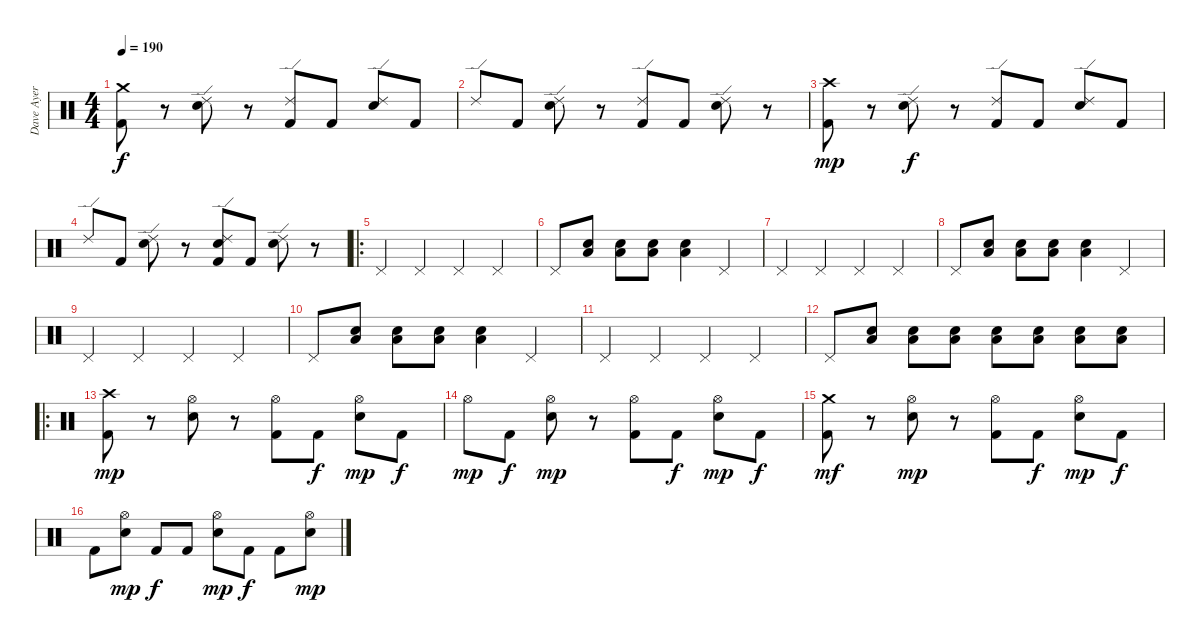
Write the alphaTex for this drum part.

\track ("Dave Ayer" "Dave Ayer") {instrument percussion}
\staff {score}
\articulation defaults
\ts (4 4)
\tempo 190
\clef neutral
\ks c
("Crash medium (hit)" "Kick (hit) 2").8{dy f} r.8 ("Ride (edge) 2" "Snare (hit) 2").8 r.8 ("Ride (edge) 2" "Kick (hit) 2").8 "Kick (hit) 2".8 ("Ride (edge) 2" "Snare (hit) 2").8 "Kick (hit) 2".8 |
"Ride (edge) 2".8 "Kick (hit) 2".8 ("Ride (edge) 2" "Snare (hit) 2").8 r.8 ("Ride (edge) 2" "Kick (hit) 2").8 "Kick (hit) 2".8 ("Ride (edge) 2" "Snare (hit) 2").8 r.8 |
("Crash high (hit)" "Kick (hit) 2").8{dy mp} r.8 ("Ride (edge) 2" "Snare (hit) 2").8{dy f} r.8 ("Ride (edge) 2" "Kick (hit) 2").8 "Kick (hit) 2".8 ("Ride (edge) 2" "Snare (hit) 2").8 "Kick (hit) 2".8 |
"Ride (edge) 2".8 "Kick (hit) 2".8 ("Ride (edge) 2" "Snare (hit) 2").8 r.8 ("Ride (edge) 2" "Snare (hit) 2" "Kick (hit) 2").8 "Kick (hit) 2".8 ("Ride (edge) 2" "Snare (hit) 2").8 r.8 |
\ro "Pedal Hi-Hat (hit)".4 "Pedal Hi-Hat (hit)".4 "Pedal Hi-Hat (hit)".4 "Pedal Hi-Hat (hit)".4
|
"Pedal Hi-Hat (hit)".8 ("Snare (hit) 2" "Low Floor Tom (hit)").8 ("Snare (hit) 2" "Low Floor Tom (hit)").8 ("Snare (hit) 2" "Low Floor Tom (hit)").8 ("Snare (hit) 2" "Low Floor Tom (hit)").4 "Pedal Hi-Hat (hit)".4 |
"Pedal Hi-Hat (hit)".4 "Pedal Hi-Hat (hit)".4 "Pedal Hi-Hat (hit)".4 "Pedal Hi-Hat (hit)".4 |
"Pedal Hi-Hat (hit)".8 ("Snare (hit) 2" "Low Floor Tom (hit)").8 ("Snare (hit) 2" "Low Floor Tom (hit)").8 ("Snare (hit) 2" "Low Floor Tom (hit)").8 ("Snare (hit) 2" "Low Floor Tom (hit)").4 "Pedal Hi-Hat (hit)".4 |
"Pedal Hi-Hat (hit)".4 "Pedal Hi-Hat (hit)".4 "Pedal Hi-Hat (hit)".4 "Pedal Hi-Hat (hit)".4 |
"Pedal Hi-Hat (hit)".8 ("Snare (hit) 2" "Low Floor Tom (hit)").8 ("Snare (hit) 2" "Low Floor Tom (hit)").8 ("Snare (hit) 2" "Low Floor Tom (hit)").8 ("Snare (hit) 2" "Low Floor Tom (hit)").4 "Pedal Hi-Hat (hit)".4 |
"Pedal Hi-Hat (hit)".4 "Pedal Hi-Hat (hit)".4 "Pedal Hi-Hat (hit)".4 "Pedal Hi-Hat (hit)".4 |
"Pedal Hi-Hat (hit)".8 ("Snare (hit) 2" "Low Floor Tom (hit)").8 ("Snare (hit) 2" "Low Floor Tom (hit)").8 ("Snare (hit) 2" "Low Floor Tom (hit)").8 ("Snare (hit) 2" "Low Floor Tom (hit)").8 ("Snare (hit) 2" "Low Floor Tom (hit)").8 ("Snare (hit) 2" "Low Floor Tom (hit)").8 ("Snare (hit) 2" "Low Floor Tom (hit)").8 |
\ro
("Crash high (hit)" "Kick (hit) 2").8{dy mp} r.8 ("Hi-Hat (open)" "Snare (hit) 2").8 r.8 ("Hi-Hat (open)" "Kick (hit) 2").8 "Kick (hit) 2".8{dy f} ("Hi-Hat (open)" "Snare (hit) 2").8{dy mp} "Kick (hit) 2".8{dy f} |
"Hi-Hat (open)".8{dy mp} "Kick (hit) 2".8{dy f} ("Hi-Hat (open)" "Snare (hit) 2").8{dy mp} r.8 ("Hi-Hat (open)" "Kick (hit) 2").8 "Kick (hit) 2".8{dy f} ("Hi-Hat (open)" "Snare (hit) 2").8{dy mp} "Kick (hit) 2".8{dy f} |
("Crash medium (hit)" "Kick (hit) 2").8{dy mf} r.8 ("Hi-Hat (open)" "Snare (hit) 2").8{dy mp} r.8 ("Hi-Hat (open)" "Kick (hit) 2").8 "Kick (hit) 2".8{dy f} ("Hi-Hat (open)" "Snare (hit) 2").8{dy mp} "Kick (hit) 2".8{dy f} |
"Kick (hit) 2".8 ("Hi-Hat (open)" "Snare (hit) 2").8{dy mp} "Kick (hit) 2".8{dy f} "Kick (hit) 2".8 ("Hi-Hat (open)" "Snare (hit) 2").8{dy mp} "Kick (hit) 2".8{dy f} "Kick (hit) 2".8 ("Hi-Hat (open)" "Snare (hit) 2").8{dy mp}
